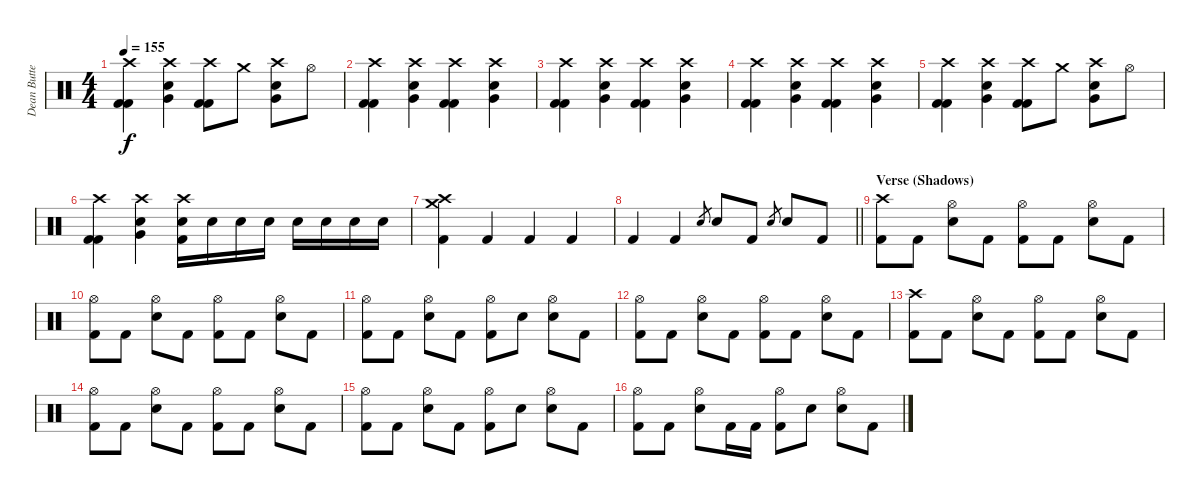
\track ("Dean Butterworth [Drums]" "Dean Butte") {solo instrument percussion}
\staff {score}
\articulation defaults
\ts (4 4)
\tempo 155
\clef neutral
\ks c
("Crash high (hit)" "Kick (hit) 2" "Kick (hit) 2").4{dy f} ("Crash high (hit)" "Very Low Tom (hit)" "Electric Snare (hit)").4 ("Crash high (hit)" "Kick (hit) 2" "Kick (hit) 2").8 "Crash medium (hit)".8 ("Crash high (hit)" "Very Low Tom (hit)" "Electric Snare (hit)").8 "Hi-Hat (open)".8 |
("Crash high (hit)" "Kick (hit) 2" "Kick (hit) 2").4 ("Crash high (hit)" "Very Low Tom (hit)" "Electric Snare (hit)").4 ("Crash high (hit)" "Kick (hit) 2" "Kick (hit) 2").4 ("Crash high (hit)" "Very Low Tom (hit)" "Electric Snare (hit)").4 |
("Crash high (hit)" "Kick (hit) 2" "Kick (hit) 2").4 ("Crash high (hit)" "Very Low Tom (hit)" "Electric Snare (hit)").4 ("Crash high (hit)" "Kick (hit) 2" "Kick (hit) 2").4 ("Crash high (hit)" "Very Low Tom (hit)" "Electric Snare (hit)").4 |
("Crash high (hit)" "Kick (hit) 2" "Kick (hit) 2").4 ("Crash high (hit)" "Very Low Tom (hit)" "Electric Snare (hit)").4 ("Crash high (hit)" "Kick (hit) 2" "Kick (hit) 2").4 ("Crash high (hit)" "Very Low Tom (hit)" "Electric Snare (hit)").4 |
("Crash high (hit)" "Kick (hit) 2" "Kick (hit) 2").4 ("Crash high (hit)" "Very Low Tom (hit)" "Electric Snare (hit)").4 ("Crash high (hit)" "Kick (hit) 2" "Kick (hit) 2").8 "Crash medium (hit)".8 ("Crash high (hit)" "Very Low Tom (hit)" "Electric Snare (hit)").8 "Hi-Hat (open)".8 |
("Crash high (hit)" "Kick (hit) 2" "Kick (hit) 2").4 ("Crash high (hit)" "Very Low Tom (hit)" "Electric Snare (hit)").4 ("Crash high (hit)" "Electric Snare (hit)" "Kick (hit) 2").16 "Electric Snare (hit)".16 "Electric Snare (hit)".16 "Electric Snare (hit)".16 "Electric Snare (hit)".16 "Electric Snare (hit)".16 "Electric Snare (hit)".16 "Electric Snare (hit)".16 |
("Crash high (hit)" "Crash medium (hit)" "Kick (hit) 2").4 "Kick (hit) 2".4 "Kick (hit) 2".4 "Kick (hit) 2".4 |
\barLineRight lightlight "Kick (hit) 2".4 "Kick (hit) 2".4 "Electric Snare (hit)".8{gr} "Electric Snare (hit)".8 "Kick (hit) 2".8 "Electric Snare (hit)".8{gr} "Electric Snare (hit)".8 "Kick (hit) 2".8
|
\section ("" "Verse (Shadows)")
("Crash high (hit)" "Kick (hit) 2").8 "Kick (hit) 2".8 ("Hi-Hat (open)" "Electric Snare (hit)").8 "Kick (hit) 2".8 ("Hi-Hat (open)" "Kick (hit) 2").8 "Kick (hit) 2".8 ("Hi-Hat (open)" "Electric Snare (hit)").8 "Kick (hit) 2".8 |
("Hi-Hat (open)" "Kick (hit) 2").8 "Kick (hit) 2".8 ("Hi-Hat (open)" "Electric Snare (hit)").8 "Kick (hit) 2".8 ("Hi-Hat (open)" "Kick (hit) 2").8 "Kick (hit) 2".8 ("Hi-Hat (open)" "Electric Snare (hit)").8 "Kick (hit) 2".8 |
("Hi-Hat (open)" "Kick (hit) 2").8 "Kick (hit) 2".8 ("Hi-Hat (open)" "Electric Snare (hit)").8 "Kick (hit) 2".8 ("Hi-Hat (open)" "Kick (hit) 2").8 "Electric Snare (hit)".8 ("Hi-Hat (open)" "Electric Snare (hit)").8 "Kick (hit) 2".8 |
("Hi-Hat (open)" "Kick (hit) 2").8 "Kick (hit) 2".8 ("Hi-Hat (open)" "Electric Snare (hit)").8 "Kick (hit) 2".8 ("Hi-Hat (open)" "Kick (hit) 2").8 "Kick (hit) 2".8 ("Hi-Hat (open)" "Electric Snare (hit)").8 "Kick (hit) 2".8 |
("Crash high (hit)" "Kick (hit) 2").8 "Kick (hit) 2".8 ("Hi-Hat (open)" "Electric Snare (hit)").8 "Kick (hit) 2".8 ("Hi-Hat (open)" "Kick (hit) 2").8 "Kick (hit) 2".8 ("Hi-Hat (open)" "Electric Snare (hit)").8 "Kick (hit) 2".8 |
("Hi-Hat (open)" "Kick (hit) 2").8 "Kick (hit) 2".8 ("Hi-Hat (open)" "Electric Snare (hit)").8 "Kick (hit) 2".8 ("Hi-Hat (open)" "Kick (hit) 2").8 "Kick (hit) 2".8 ("Hi-Hat (open)" "Electric Snare (hit)").8 "Kick (hit) 2".8 |
("Hi-Hat (open)" "Kick (hit) 2").8 "Kick (hit) 2".8 ("Hi-Hat (open)" "Electric Snare (hit)").8 "Kick (hit) 2".8 ("Hi-Hat (open)" "Kick (hit) 2").8 "Electric Snare (hit)".8 ("Hi-Hat (open)" "Electric Snare (hit)").8 "Kick (hit) 2".8 |
("Hi-Hat (open)" "Kick (hit) 2").8 "Kick (hit) 2".8 ("Hi-Hat (open)" "Electric Snare (hit)").8 "Kick (hit) 2".16 "Kick (hit) 2".16 ("Hi-Hat (open)" "Kick (hit) 2").8 "Electric Snare (hit)".8 ("Hi-Hat (open)" "Electric Snare (hit)").8 "Kick (hit) 2".8
